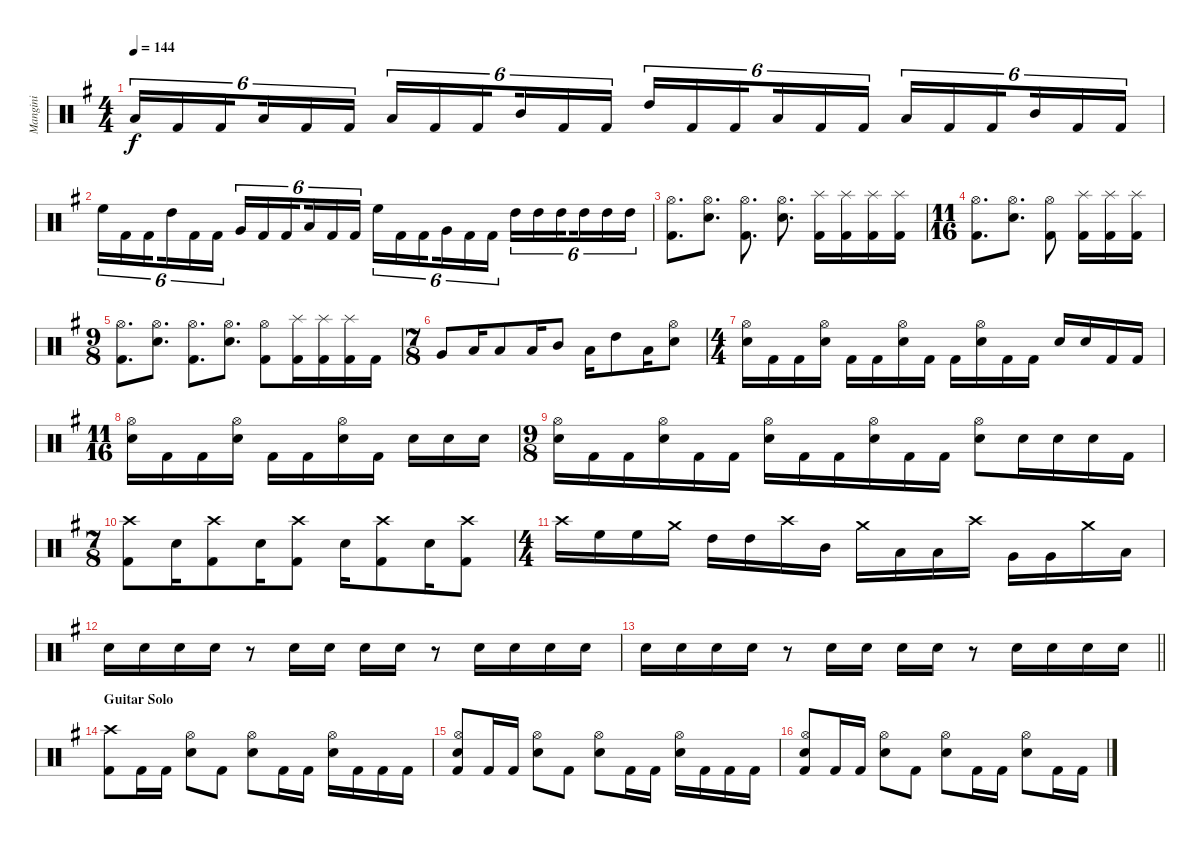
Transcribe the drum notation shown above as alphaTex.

\track ("Mangini" "Mangini") {instrument percussion}
\staff {score}
\articulation defaults
\ts (4 4)
\tempo 144
\clef neutral
\ks eminor "Low Tom (hit)".16{tu (6 4) dy f} "Kick (hit) 2".16{tu (6 4)} "Kick (hit) 2".16{tu (6 4) beam splitsecondary} "Low Floor Tom (hit)".16{tu (6 4)} "Kick (hit) 2".16{tu (6 4)} "Kick (hit) 2".16{tu (6 4)} "Low Tom (hit)".16{tu (6 4)} "Kick (hit) 2".16{tu (6 4)} "Kick (hit) 2".16{tu (6 4) beam splitsecondary} "Mid Tom (hit)".16{tu (6 4)} "Kick (hit) 2".16{tu (6 4)} "Kick (hit) 2".16{tu (6 4)} "High Tom (hit)".16{tu (6 4)} "Kick (hit) 2".16{tu (6 4)} "Kick (hit) 2".16{tu (6 4) beam splitsecondary} "Low Tom (hit)".16{tu (6 4)} "Kick (hit) 2".16{tu (6 4)} "Kick (hit) 2".16{tu (6 4)} "Low Floor Tom (hit)".16{tu (6 4)} "Kick (hit) 2".16{tu (6 4)} "Kick (hit) 2".16{tu (6 4) beam splitsecondary} "Mid Tom (hit)".16{tu (6 4)} "Kick (hit) 2".16{tu (6 4)} "Kick (hit) 2".16{tu (6 4)}
|
"High Floor Tom (hit)".16{tu (6 4)} "Kick (hit) 2".16{tu (6 4)} "Kick (hit) 2".16{tu (6 4) beam splitsecondary} "High Tom (hit)".16{tu (6 4)} "Kick (hit) 2".16{tu (6 4)} "Kick (hit) 2".16{tu (6 4)} "Very Low Tom (hit)".16{tu (6 4)} "Kick (hit) 2".16{tu (6 4)} "Kick (hit) 2".16{tu (6 4) beam splitsecondary} "Low Tom (hit)".16{tu (6 4)} "Kick (hit) 2".16{tu (6 4)} "Kick (hit) 2".16{tu (6 4)} "High Floor Tom (hit)".16{tu (6 4)} "Kick (hit) 2".16{tu (6 4)} "Kick (hit) 2".16{tu (6 4) beam splitsecondary} "Very Low Tom (hit)".16{tu (6 4)} "Kick (hit) 2".16{tu (6 4)} "Kick (hit) 2".16{tu (6 4)} "High Tom (hit)".16{tu (6 4)} "High Tom (hit)".16{tu (6 4)} "High Tom (hit)".16{tu (6 4) beam splitsecondary} "High Tom (hit)".16{tu (6 4)} "High Tom (hit)".16{tu (6 4)} "High Tom (hit)".16{tu (6 4)} |
("Hi-Hat (open)" "Kick (hit) 2").8{d} ("Hi-Hat (open)" "Snare (hit) 2").8{d} ("Hi-Hat (open)" "Kick (hit) 2").8{d} ("Hi-Hat (open)" "Snare (hit) 2").8{d} ("Splash (hit)" "Kick (hit) 2").16 ("Splash (hit)" "Kick (hit) 2").16 ("Splash (hit)" "Kick (hit) 2").16 ("Splash (hit)" "Kick (hit) 2").16 |
\ts (11 16)
("Hi-Hat (open)" "Kick (hit) 2").8{d} ("Hi-Hat (open)" "Snare (hit) 2").8{d} ("Hi-Hat (open)" "Kick (hit) 2").8 ("Splash (hit)" "Kick (hit) 2").16 ("Splash (hit)" "Kick (hit) 2").16 ("Splash (hit)" "Kick (hit) 2").16 |
\ts (9 8)
("Hi-Hat (open)" "Kick (hit) 2").8{d} ("Hi-Hat (open)" "Snare (hit) 2").8{d} ("Hi-Hat (open)" "Kick (hit) 2").8{d} ("Hi-Hat (open)" "Snare (hit) 2").8{d} ("Hi-Hat (open)" "Kick (hit) 2").8 ("Splash (hit)" "Kick (hit) 2").16 ("Splash (hit)" "Kick (hit) 2").16 ("Splash (hit)" "Kick (hit) 2").16 "Kick (hit) 2".16 |
\ts (7 8)
"Very Low Tom (hit)".8 "Low Floor Tom (hit)".16 "Low Tom (hit)".8 "Low Floor Tom (hit)".16 "Mid Tom (hit)".8 "Low Floor Tom (hit)".16 "High Tom (hit)".8 "Low Floor Tom (hit)".16 ("Hi-Hat (open)" "Snare (hit) 2").8 |
\ts (4 4)
("Hi-Hat (open)" "Snare (hit) 2").16 "Kick (hit) 2".16 "Kick (hit) 2".16 ("Hi-Hat (open)" "Snare (hit) 2").16 "Kick (hit) 2".16 "Kick (hit) 2".16 ("Hi-Hat (open)" "Snare (hit) 2").16 "Kick (hit) 2".16 "Kick (hit) 2".16 ("Hi-Hat (open)" "Snare (hit) 2").16 "Kick (hit) 2".16 "Kick (hit) 2".16 "Snare (hit) 2".16 "Snare (hit) 2".16 "Kick (hit) 2".16 "Kick (hit) 2".16 |
\ts (11 16)
("Hi-Hat (open)" "Snare (hit) 2").16 "Kick (hit) 2".16 "Kick (hit) 2".16 ("Hi-Hat (open)" "Snare (hit) 2").16 "Kick (hit) 2".16 "Kick (hit) 2".16 ("Hi-Hat (open)" "Snare (hit) 2").16 "Kick (hit) 2".16 "Snare (hit) 2".16 "Snare (hit) 2".16 "Snare (hit) 2".16 |
\ts (9 8)
("Hi-Hat (open)" "Snare (hit) 2").16 "Kick (hit) 2".16 "Kick (hit) 2".16 ("Hi-Hat (open)" "Snare (hit) 2").16 "Kick (hit) 2".16 "Kick (hit) 2".16 ("Hi-Hat (open)" "Snare (hit) 2").16 "Kick (hit) 2".16 "Kick (hit) 2".16 ("Hi-Hat (open)" "Snare (hit) 2").16 "Kick (hit) 2".16 "Kick (hit) 2".16 ("Hi-Hat (open)" "Snare (hit) 2").8 "Snare (hit) 2".16 "Snare (hit) 2".16 "Snare (hit) 2".16 "Kick (hit) 2".16 |
\ts (7 8)
("Crash high (hit)" "Kick (hit) 2").8 "Snare (hit) 2".16 ("Crash high (hit)" "Kick (hit) 2").8 "Snare (hit) 2".16 ("Crash high (hit)" "Kick (hit) 2").8 "Snare (hit) 2".16 ("Crash high (hit)" "Kick (hit) 2").8 "Snare (hit) 2".16 ("Crash high (hit)" "Kick (hit) 2").8 |
\ts (4 4)
"Crash high (hit)".16 "High Floor Tom (hit)".16 "High Floor Tom (hit)".16 "Crash medium (hit)".16 "High Tom (hit)".16 "High Tom (hit)".16 "Crash high (hit)".16 "Mid Tom (hit)".16 "Crash medium (hit)".16 "Low Tom (hit)".16 "Low Tom (hit)".16 "Crash high (hit)".16 "Very Low Tom (hit)".16 "Very Low Tom (hit)".16 "Crash medium (hit)".16 "Low Floor Tom (hit)".16 |
"Snare (hit) 2".16 "Snare (hit) 2".16 "Snare (hit) 2".16 "Snare (hit) 2".16 r.8 "Snare (hit) 2".16 "Snare (hit) 2".16 "Snare (hit) 2".16 "Snare (hit) 2".16 r.8 "Snare (hit) 2".16 "Snare (hit) 2".16 "Snare (hit) 2".16 "Snare (hit) 2".16 |
\barLineRight lightlight "Snare (hit) 2".16 "Snare (hit) 2".16 "Snare (hit) 2".16 "Snare (hit) 2".16
r.8 "Snare (hit) 2".16 "Snare (hit) 2".16 "Snare (hit) 2".16 "Snare (hit) 2".16 r.8 "Snare (hit) 2".16 "Snare (hit) 2".16 "Snare (hit) 2".16 "Snare (hit) 2".16 |
\section ("" "Guitar Solo")
("Crash high (hit)" "Kick (hit) 2").8 "Kick (hit) 2".16 "Kick (hit) 2".16 ("Hi-Hat (open)" "Snare (hit) 2").8 "Kick (hit) 2".8 ("Hi-Hat (open)" "Snare (hit) 2").8 "Kick (hit) 2".16 "Kick (hit) 2".16 ("Hi-Hat (open)" "Snare (hit) 2").16 "Kick (hit) 2".16 "Kick (hit) 2".16 "Kick (hit) 2".16 |
("Hi-Hat (open)" "Snare (hit) 2" "Kick (hit) 2").8 "Kick (hit) 2".16 "Kick (hit) 2".16 ("Hi-Hat (open)" "Snare (hit) 2").8 "Kick (hit) 2".8 ("Hi-Hat (open)" "Snare (hit) 2").8 "Kick (hit) 2".16 "Kick (hit) 2".16 ("Hi-Hat (open)" "Snare (hit) 2").16 "Kick (hit) 2".16 "Kick (hit) 2".16 "Kick (hit) 2".16 |
("Hi-Hat (open)" "Snare (hit) 2" "Kick (hit) 2").8 "Kick (hit) 2".16 "Kick (hit) 2".16 ("Hi-Hat (open)" "Snare (hit) 2").8 "Kick (hit) 2".8 ("Hi-Hat (open)" "Snare (hit) 2").8 "Kick (hit) 2".16 "Kick (hit) 2".16 ("Hi-Hat (open)" "Snare (hit) 2").8 "Kick (hit) 2".16 "Kick (hit) 2".16
